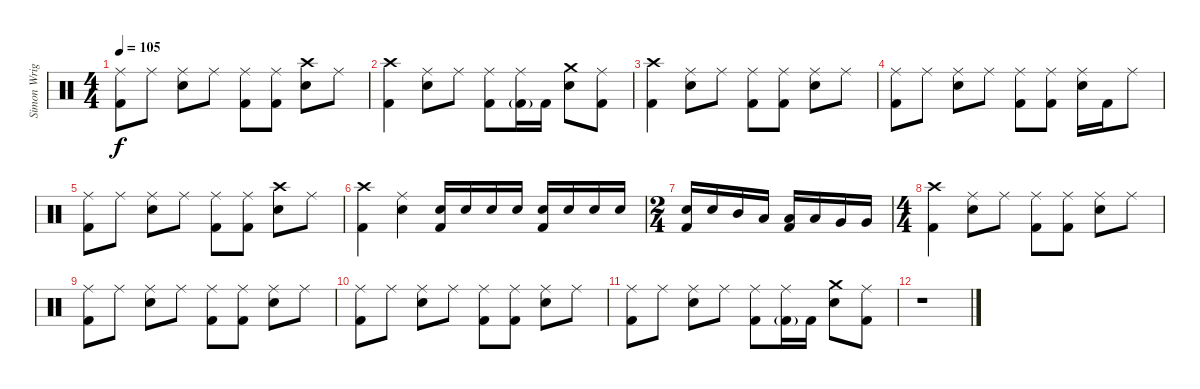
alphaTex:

\track ("Simon Wright" "Simon Wrig") {instrument percussion}
\staff {score}
\articulation defaults
\ts (4 4)
\tempo 105
\clef neutral
\ks c
("Ride (middle)" "Kick (hit) 2").8{dy f} "Ride (middle)".8 ("Ride (middle)" "Snare (hit) 2").8 "Ride (middle)".8 ("Ride (middle)" "Kick (hit) 2").8 ("Ride (middle)" "Kick (hit) 2").8 ("Crash high (hit)" "Snare (hit) 2").8 "Ride (middle)".8 |
("Crash high (hit)" "Kick (hit) 2").4 ("Ride (middle)" "Snare (hit) 2").8 "Ride (middle)".8 ("Ride (middle)" "Kick (hit) 2").8 ("Ride (middle)" "Kick (hit) 2"{g}).16 "Kick (hit) 2".16 ("Crash medium (hit)" "Snare (hit) 2").8 ("Ride (middle)" "Kick (hit) 2").8 |
("Crash high (hit)" "Kick (hit) 2").4 ("Ride (middle)" "Snare (hit) 2").8 "Ride (middle)".8 ("Ride (middle)" "Kick (hit) 2").8 ("Ride (middle)" "Kick (hit) 2").8 ("Ride (middle)" "Snare (hit) 2").8 "Ride (middle)".8 |
("Ride (middle)" "Kick (hit) 2").8 "Ride (middle)".8 ("Ride (middle)" "Snare (hit) 2").8 "Ride (middle)".8 ("Ride (middle)" "Kick (hit) 2").8 ("Ride (middle)" "Kick (hit) 2").8 ("Ride (middle)" "Snare (hit) 2").16 "Kick (hit) 2".16 "Ride (middle)".8 |
("Ride (middle)" "Kick (hit) 2").8 "Ride (middle)".8 ("Ride (middle)" "Snare (hit) 2").8 "Ride (middle)".8 ("Ride (middle)" "Kick (hit) 2").8 ("Ride (middle)" "Kick (hit) 2").8 ("Crash high (hit)" "Snare (hit) 2").8 "Ride (middle)".8 |
("Crash high (hit)" "Kick (hit) 2").4 ("Ride (middle)" "Snare (hit) 2").4 ("Snare (hit) 2" "Kick (hit) 2").16 "Snare (hit) 2".16 "Snare (hit) 2".16 "Snare (hit) 2".16 ("Snare (hit) 2" "Kick (hit) 2").16 "Snare (hit) 2".16 "Snare (hit) 2".16 "Snare (hit) 2".16 |
\ts (2 4)
("Snare (hit) 2" "Kick (hit) 2").16 "Snare (hit) 2".16 "Mid Tom (hit)".16 "Low Tom (hit)".16 ("Low Tom (hit)" "Kick (hit) 2").16 "Low Tom (hit)".16 "Very Low Tom (hit)".16 "Very Low Tom (hit)".16 |
\ts (4 4)
("Crash high (hit)" "Kick (hit) 2").4 ("Ride (middle)" "Snare (hit) 2").8 "Ride (middle)".8 ("Ride (middle)" "Kick (hit) 2").8 ("Ride (middle)" "Kick (hit) 2").8 ("Ride (middle)" "Snare (hit) 2").8 "Ride (middle)".8 |
("Ride (middle)" "Kick (hit) 2").8 "Ride (middle)".8 ("Ride (middle)" "Snare (hit) 2").8 "Ride (middle)".8 ("Ride (middle)" "Kick (hit) 2").8 ("Ride (middle)" "Kick (hit) 2").8 ("Ride (middle)" "Snare (hit) 2").8 "Ride (middle)".8 |
("Ride (middle)" "Kick (hit) 2").8 "Ride (middle)".8 ("Ride (middle)" "Snare (hit) 2").8 "Ride (middle)".8 ("Ride (middle)" "Kick (hit) 2").8 ("Ride (middle)" "Kick (hit) 2").8 ("Ride (middle)" "Snare (hit) 2").8 "Ride (middle)".8 |
("Ride (middle)" "Kick (hit) 2").8 "Ride (middle)".8 ("Ride (middle)" "Snare (hit) 2").8 "Ride (middle)".8 ("Ride (middle)" "Kick (hit) 2").8 ("Ride (middle)" "Kick (hit) 2"{g}).16 "Kick (hit) 2".16 ("Crash medium (hit)" "Snare (hit) 2").8 ("Ride (middle)" "Kick (hit) 2").8 |
r.1
